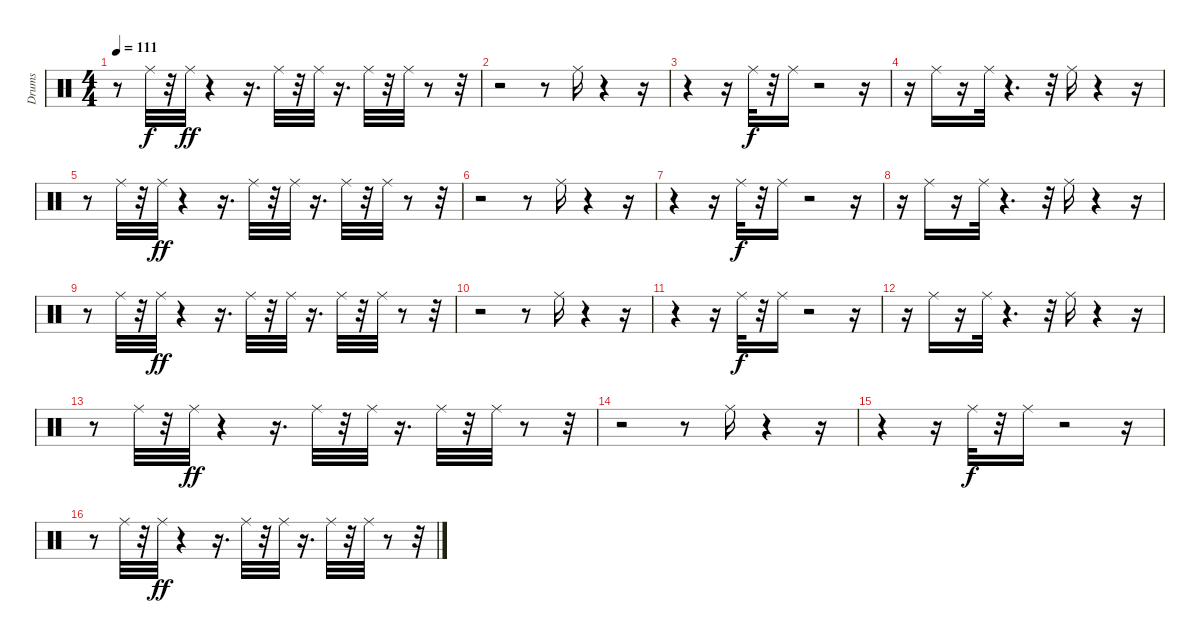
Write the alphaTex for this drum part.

\track ("Drums" "Drums") {instrument percussion}
\staff {score}
\articulation defaults
\ts (4 4)
\tempo 111
\clef neutral
\ks c
r.8{dy f} "Ride (middle)".32 r.32 "Ride (middle)".32{dy ff} r.4 r.16{d} "Ride (middle)".32 r.32 "Ride (middle)".32 r.16{d} "Ride (middle)".32 r.32 "Ride (middle)".32 r.8 r.32 |
r.2 r.8 "Ride (middle)".16 r.4 r.16 |
r.4 r.16 "Ride (middle)".32{dy f} r.32 "Ride (middle)".16 r.2 r.16 |
r.16 "Ride (middle)".16 r.16 "Ride (middle)".32 r.4{d} r.32 "Ride (middle)".16 r.4 r.16 |
r.8 "Ride (middle)".32 r.32 "Ride (middle)".32{dy ff} r.4 r.16{d} "Ride (middle)".32 r.32 "Ride (middle)".32 r.16{d} "Ride (middle)".32 r.32 "Ride (middle)".32 r.8 r.32 |
r.2 r.8 "Ride (middle)".16 r.4 r.16 |
r.4 r.16 "Ride (middle)".32{dy f} r.32 "Ride (middle)".16 r.2 r.16 |
r.16 "Ride (middle)".16 r.16 "Ride (middle)".32 r.4{d} r.32 "Ride (middle)".16 r.4 r.16 |
r.8 "Ride (middle)".32 r.32 "Ride (middle)".32{dy ff} r.4 r.16{d} "Ride (middle)".32 r.32 "Ride (middle)".32 r.16{d} "Ride (middle)".32 r.32 "Ride (middle)".32 r.8 r.32 |
r.2 r.8 "Ride (middle)".16 r.4 r.16 |
r.4 r.16 "Ride (middle)".32{dy f} r.32 "Ride (middle)".16 r.2 r.16 |
r.16 "Ride (middle)".16 r.16 "Ride (middle)".32 r.4{d} r.32 "Ride (middle)".16 r.4 r.16 |
r.8 "Ride (middle)".32 r.32 "Ride (middle)".32{dy ff} r.4 r.16{d} "Ride (middle)".32 r.32 "Ride (middle)".32 r.16{d} "Ride (middle)".32 r.32 "Ride (middle)".32 r.8 r.32 |
r.2 r.8 "Ride (middle)".16 r.4 r.16 |
r.4 r.16 "Ride (middle)".32{dy f} r.32 "Ride (middle)".16 r.2 r.16 |
r.8 "Ride (middle)".32 r.32 "Ride (middle)".32{dy ff} r.4 r.16{d} "Ride (middle)".32 r.32 "Ride (middle)".32 r.16{d} "Ride (middle)".32 r.32 "Ride (middle)".32 r.8 r.32
